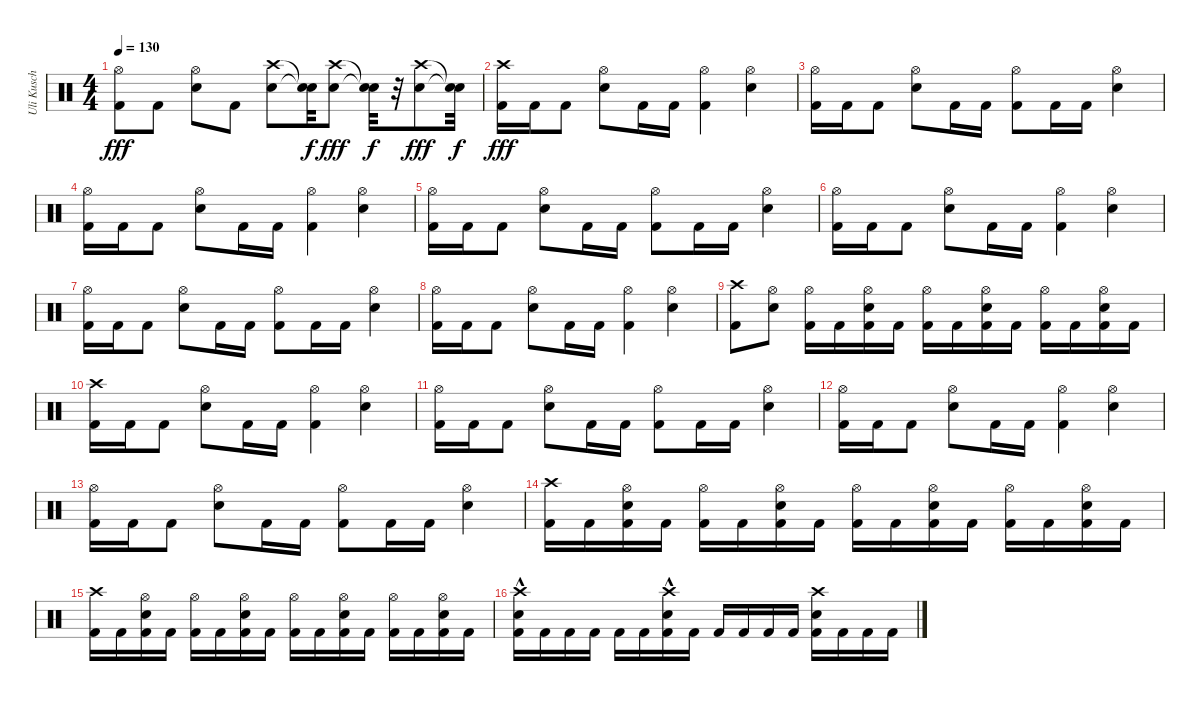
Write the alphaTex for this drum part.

\track ("Uli Kusch" "Uli Kusch") {instrument percussion}
\staff {score}
\articulation defaults
\ts (4 4)
\tempo 130
\clef neutral
\ks c
("Kick (hit) 2" "Hi-Hat (open)").8{dy fff} "Kick (hit) 2".8 ("Electric Snare (hit)" "Hi-Hat (open)").8 "Kick (hit) 2".8 ("Crash high (hit)" "Electric Snare (hit)").8 ("Snare (hit)"{t} "Snare (hit)"{t}).32{dy f} ("Crash high (hit)" "Electric Snare (hit)").8{dy fff} ("Snare (hit)"{t} "Snare (hit)"{t}).32{dy f} r.32 ("Crash high (hit)" "Electric Snare (hit)").8{dy fff} ("Snare (hit)"{t} "Snare (hit)"{t}).32{dy f} |
("Crash high (hit)" "Kick (hit) 2").16{dy fff} "Kick (hit) 2".16 "Kick (hit) 2".8 ("Electric Snare (hit)" "Hi-Hat (open)").8 "Kick (hit) 2".16 "Kick (hit) 2".16 ("Hi-Hat (open)" "Kick (hit) 2").4 ("Electric Snare (hit)" "Hi-Hat (open)").4 |
("Kick (hit) 2" "Hi-Hat (open)").16 "Kick (hit) 2".16 "Kick (hit) 2".8 ("Electric Snare (hit)" "Hi-Hat (open)").8 "Kick (hit) 2".16 "Kick (hit) 2".16 ("Hi-Hat (open)" "Kick (hit) 2").8 "Kick (hit) 2".16 "Kick (hit) 2".16 ("Electric Snare (hit)" "Hi-Hat (open)").4 |
("Kick (hit) 2" "Hi-Hat (open)").16 "Kick (hit) 2".16 "Kick (hit) 2".8 ("Electric Snare (hit)" "Hi-Hat (open)").8 "Kick (hit) 2".16 "Kick (hit) 2".16 ("Hi-Hat (open)" "Kick (hit) 2").4 ("Electric Snare (hit)" "Hi-Hat (open)").4 |
("Kick (hit) 2" "Hi-Hat (open)").16 "Kick (hit) 2".16 "Kick (hit) 2".8 ("Electric Snare (hit)" "Hi-Hat (open)").8 "Kick (hit) 2".16 "Kick (hit) 2".16 ("Hi-Hat (open)" "Kick (hit) 2").8 "Kick (hit) 2".16 "Kick (hit) 2".16 ("Electric Snare (hit)" "Hi-Hat (open)").4 |
("Kick (hit) 2" "Hi-Hat (open)").16 "Kick (hit) 2".16 "Kick (hit) 2".8 ("Electric Snare (hit)" "Hi-Hat (open)").8 "Kick (hit) 2".16 "Kick (hit) 2".16 ("Hi-Hat (open)" "Kick (hit) 2").4 ("Electric Snare (hit)" "Hi-Hat (open)").4 |
("Kick (hit) 2" "Hi-Hat (open)").16 "Kick (hit) 2".16 "Kick (hit) 2".8 ("Electric Snare (hit)" "Hi-Hat (open)").8 "Kick (hit) 2".16 "Kick (hit) 2".16 ("Hi-Hat (open)" "Kick (hit) 2").8 "Kick (hit) 2".16 "Kick (hit) 2".16 ("Electric Snare (hit)" "Hi-Hat (open)").4 |
("Kick (hit) 2" "Hi-Hat (open)").16 "Kick (hit) 2".16 "Kick (hit) 2".8 ("Electric Snare (hit)" "Hi-Hat (open)").8 "Kick (hit) 2".16 "Kick (hit) 2".16 ("Hi-Hat (open)" "Kick (hit) 2").4 ("Electric Snare (hit)" "Hi-Hat (open)").4 |
("Crash high (hit)" "Kick (hit) 2").8 ("Hi-Hat (open)" "Electric Snare (hit)").8 ("Hi-Hat (open)" "Kick (hit) 2").16 "Kick (hit) 2".16 ("Kick (hit) 2" "Electric Snare (hit)" "Hi-Hat (open)").16 "Kick (hit) 2".16 ("Hi-Hat (open)" "Kick (hit) 2").16 "Kick (hit) 2".16 ("Kick (hit) 2" "Electric Snare (hit)" "Hi-Hat (open)").16 "Kick (hit) 2".16 ("Hi-Hat (open)" "Kick (hit) 2").16 "Kick (hit) 2".16 ("Kick (hit) 2" "Electric Snare (hit)" "Hi-Hat (open)").16 "Kick (hit) 2".16 |
("Crash high (hit)" "Kick (hit) 2").16 "Kick (hit) 2".16 "Kick (hit) 2".8 ("Electric Snare (hit)" "Hi-Hat (open)").8 "Kick (hit) 2".16 "Kick (hit) 2".16 ("Hi-Hat (open)" "Kick (hit) 2").4 ("Electric Snare (hit)" "Hi-Hat (open)").4 |
("Kick (hit) 2" "Hi-Hat (open)").16 "Kick (hit) 2".16 "Kick (hit) 2".8 ("Electric Snare (hit)" "Hi-Hat (open)").8 "Kick (hit) 2".16 "Kick (hit) 2".16 ("Hi-Hat (open)" "Kick (hit) 2").8 "Kick (hit) 2".16 "Kick (hit) 2".16 ("Electric Snare (hit)" "Hi-Hat (open)").4 |
("Kick (hit) 2" "Hi-Hat (open)").16 "Kick (hit) 2".16 "Kick (hit) 2".8 ("Electric Snare (hit)" "Hi-Hat (open)").8 "Kick (hit) 2".16 "Kick (hit) 2".16 ("Hi-Hat (open)" "Kick (hit) 2").4 ("Electric Snare (hit)" "Hi-Hat (open)").4 |
("Kick (hit) 2" "Hi-Hat (open)").16 "Kick (hit) 2".16 "Kick (hit) 2".8 ("Electric Snare (hit)" "Hi-Hat (open)").8 "Kick (hit) 2".16 "Kick (hit) 2".16 ("Hi-Hat (open)" "Kick (hit) 2").8 "Kick (hit) 2".16 "Kick (hit) 2".16 ("Electric Snare (hit)" "Hi-Hat (open)").4 |
("Crash high (hit)" "Kick (hit) 2").16 "Kick (hit) 2".16 ("Hi-Hat (open)" "Electric Snare (hit)" "Kick (hit) 2").16 "Kick (hit) 2".16 ("Hi-Hat (open)" "Kick (hit) 2").16 "Kick (hit) 2".16 ("Kick (hit) 2" "Electric Snare (hit)" "Hi-Hat (open)").16 "Kick (hit) 2".16 ("Hi-Hat (open)" "Kick (hit) 2").16 "Kick (hit) 2".16 ("Kick (hit) 2" "Electric Snare (hit)" "Hi-Hat (open)").16 "Kick (hit) 2".16 ("Hi-Hat (open)" "Kick (hit) 2").16 "Kick (hit) 2".16 ("Kick (hit) 2" "Electric Snare (hit)" "Hi-Hat (open)").16 "Kick (hit) 2".16 |
("Crash high (hit)" "Kick (hit) 2").16 "Kick (hit) 2".16 ("Hi-Hat (open)" "Electric Snare (hit)" "Kick (hit) 2").16 "Kick (hit) 2".16 ("Hi-Hat (open)" "Kick (hit) 2").16 "Kick (hit) 2".16 ("Kick (hit) 2" "Electric Snare (hit)" "Hi-Hat (open)").16 "Kick (hit) 2".16 ("Hi-Hat (open)" "Kick (hit) 2").16 "Kick (hit) 2".16 ("Kick (hit) 2" "Electric Snare (hit)" "Hi-Hat (open)").16 "Kick (hit) 2".16 ("Hi-Hat (open)" "Kick (hit) 2").16 "Kick (hit) 2".16 ("Kick (hit) 2" "Electric Snare (hit)" "Hi-Hat (open)").16 "Kick (hit) 2".16 |
("Kick (hit) 2" "Crash high (hit)"{hac} "Electric Snare (hit)"{hac}).16 "Kick (hit) 2".16 "Kick (hit) 2".16 "Kick (hit) 2".16 "Kick (hit) 2".16 "Kick (hit) 2".16 ("Kick (hit) 2" "Electric Snare (hit)" "Crash high (hit)"{hac}).16 "Kick (hit) 2".16 "Kick (hit) 2".16 "Kick (hit) 2".16 "Kick (hit) 2".16 "Kick (hit) 2".16 ("Kick (hit) 2" "Electric Snare (hit)" "Crash high (hit)").16 "Kick (hit) 2".16 "Kick (hit) 2".16 "Kick (hit) 2".16
